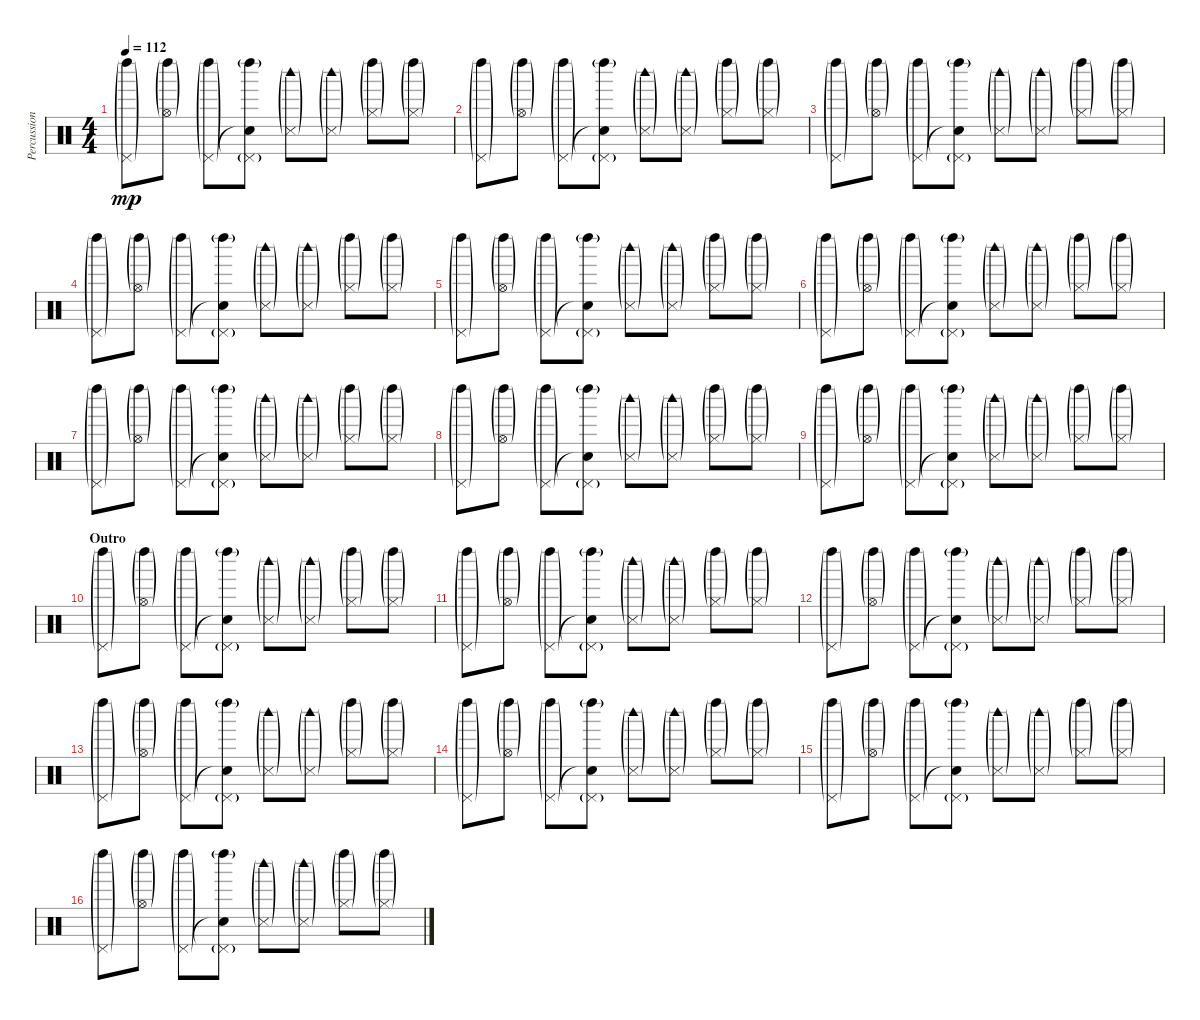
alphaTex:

\track ("Percussion" "Percussion") {instrument percussion}
\staff {score}
\articulation defaults
\ts (4 4)
\tempo 112
\clef neutral
\ks c
("Left Maraca (hit)"{g} "Pedal Hi-Hat (hit)"{g}).8{dy mp} ("Left Maraca (hit)"{g} "Hi-Hat (open)"{g}).8 ("Left Maraca (hit)"{g} "Pedal Hi-Hat (hit)"{g}).8 ("Left Maraca (hit)"{g} "Snare (hit)"{t} "Pedal Hi-Hat (hit)"{g}).8 ("Snare (side stick) 3"{g} "Woodblock high (hit)"{g}).8 ("Snare (side stick) 3"{g} "Woodblock high (hit)"{g}).8 ("Left Maraca (hit)"{g} "Hi-Hat (closed)"{g}).8 ("Left Maraca (hit)"{g} "Hi-Hat (closed)"{g}).8 |
("Left Maraca (hit)"{g} "Pedal Hi-Hat (hit)"{g}).8 ("Left Maraca (hit)"{g} "Hi-Hat (open)"{g}).8 ("Left Maraca (hit)"{g} "Pedal Hi-Hat (hit)"{g}).8 ("Left Maraca (hit)"{g} "Snare (hit)"{t} "Pedal Hi-Hat (hit)"{g}).8 ("Snare (side stick) 3"{g} "Woodblock high (hit)"{g}).8 ("Snare (side stick) 3"{g} "Woodblock high (hit)"{g}).8 ("Left Maraca (hit)"{g} "Hi-Hat (closed)"{g}).8 ("Left Maraca (hit)"{g} "Hi-Hat (closed)"{g}).8 |
("Left Maraca (hit)"{g} "Pedal Hi-Hat (hit)"{g}).8 ("Left Maraca (hit)"{g} "Hi-Hat (open)"{g}).8 ("Left Maraca (hit)"{g} "Pedal Hi-Hat (hit)"{g}).8 ("Left Maraca (hit)"{g} "Snare (hit)"{t} "Pedal Hi-Hat (hit)"{g}).8 ("Snare (side stick) 3"{g} "Woodblock high (hit)"{g}).8 ("Snare (side stick) 3"{g} "Woodblock high (hit)"{g}).8 ("Left Maraca (hit)"{g} "Hi-Hat (closed)"{g}).8 ("Left Maraca (hit)"{g} "Hi-Hat (closed)"{g}).8 |
("Left Maraca (hit)"{g} "Pedal Hi-Hat (hit)"{g}).8 ("Left Maraca (hit)"{g} "Hi-Hat (open)"{g}).8 ("Left Maraca (hit)"{g} "Pedal Hi-Hat (hit)"{g}).8 ("Left Maraca (hit)"{g} "Snare (hit)"{t} "Pedal Hi-Hat (hit)"{g}).8 ("Snare (side stick) 3"{g} "Woodblock high (hit)"{g}).8 ("Snare (side stick) 3"{g} "Woodblock high (hit)"{g}).8 ("Left Maraca (hit)"{g} "Hi-Hat (closed)"{g}).8 ("Left Maraca (hit)"{g} "Hi-Hat (closed)"{g}).8 |
("Left Maraca (hit)"{g} "Pedal Hi-Hat (hit)"{g}).8 ("Left Maraca (hit)"{g} "Hi-Hat (open)"{g}).8 ("Left Maraca (hit)"{g} "Pedal Hi-Hat (hit)"{g}).8 ("Left Maraca (hit)"{g} "Snare (hit)"{t} "Pedal Hi-Hat (hit)"{g}).8 ("Snare (side stick) 3"{g} "Woodblock high (hit)"{g}).8 ("Snare (side stick) 3"{g} "Woodblock high (hit)"{g}).8 ("Left Maraca (hit)"{g} "Hi-Hat (closed)"{g}).8 ("Left Maraca (hit)"{g} "Hi-Hat (closed)"{g}).8 |
("Left Maraca (hit)"{g} "Pedal Hi-Hat (hit)"{g}).8 ("Left Maraca (hit)"{g} "Hi-Hat (open)"{g}).8 ("Left Maraca (hit)"{g} "Pedal Hi-Hat (hit)"{g}).8 ("Left Maraca (hit)"{g} "Snare (hit)"{t} "Pedal Hi-Hat (hit)"{g}).8 ("Snare (side stick) 3"{g} "Woodblock high (hit)"{g}).8 ("Snare (side stick) 3"{g} "Woodblock high (hit)"{g}).8 ("Left Maraca (hit)"{g} "Hi-Hat (closed)"{g}).8 ("Left Maraca (hit)"{g} "Hi-Hat (closed)"{g}).8 |
("Left Maraca (hit)"{g} "Pedal Hi-Hat (hit)"{g}).8 ("Left Maraca (hit)"{g} "Hi-Hat (open)"{g}).8 ("Left Maraca (hit)"{g} "Pedal Hi-Hat (hit)"{g}).8 ("Left Maraca (hit)"{g} "Snare (hit)"{t} "Pedal Hi-Hat (hit)"{g}).8 ("Snare (side stick) 3"{g} "Woodblock high (hit)"{g}).8 ("Snare (side stick) 3"{g} "Woodblock high (hit)"{g}).8 ("Left Maraca (hit)"{g} "Hi-Hat (closed)"{g}).8 ("Left Maraca (hit)"{g} "Hi-Hat (closed)"{g}).8 |
("Left Maraca (hit)"{g} "Pedal Hi-Hat (hit)"{g}).8 ("Left Maraca (hit)"{g} "Hi-Hat (open)"{g}).8 ("Left Maraca (hit)"{g} "Pedal Hi-Hat (hit)"{g}).8 ("Left Maraca (hit)"{g} "Snare (hit)"{t} "Pedal Hi-Hat (hit)"{g}).8 ("Snare (side stick) 3"{g} "Woodblock high (hit)"{g}).8 ("Snare (side stick) 3"{g} "Woodblock high (hit)"{g}).8 ("Left Maraca (hit)"{g} "Hi-Hat (closed)"{g}).8 ("Left Maraca (hit)"{g} "Hi-Hat (closed)"{g}).8 |
("Left Maraca (hit)"{g} "Pedal Hi-Hat (hit)"{g}).8 ("Left Maraca (hit)"{g} "Hi-Hat (open)"{g}).8 ("Left Maraca (hit)"{g} "Pedal Hi-Hat (hit)"{g}).8 ("Left Maraca (hit)"{g} "Snare (hit)"{t} "Pedal Hi-Hat (hit)"{g}).8 ("Snare (side stick) 3"{g} "Woodblock high (hit)"{g}).8 ("Snare (side stick) 3"{g} "Woodblock high (hit)"{g}).8 ("Left Maraca (hit)"{g} "Hi-Hat (closed)"{g}).8 ("Left Maraca (hit)"{g} "Hi-Hat (closed)"{g}).8 |
\section ("" "Outro")
("Left Maraca (hit)"{g} "Pedal Hi-Hat (hit)"{g}).8 ("Left Maraca (hit)"{g} "Hi-Hat (open)"{g}).8 ("Left Maraca (hit)"{g} "Pedal Hi-Hat (hit)"{g}).8 ("Left Maraca (hit)"{g} "Snare (hit)"{t} "Pedal Hi-Hat (hit)"{g}).8 ("Snare (side stick) 3"{g} "Woodblock high (hit)"{g}).8 ("Snare (side stick) 3"{g} "Woodblock high (hit)"{g}).8 ("Left Maraca (hit)"{g} "Hi-Hat (closed)"{g}).8 ("Left Maraca (hit)"{g} "Hi-Hat (closed)"{g}).8 |
("Left Maraca (hit)"{g} "Pedal Hi-Hat (hit)"{g}).8 ("Left Maraca (hit)"{g} "Hi-Hat (open)"{g}).8 ("Left Maraca (hit)"{g} "Pedal Hi-Hat (hit)"{g}).8 ("Left Maraca (hit)"{g} "Snare (hit)"{t} "Pedal Hi-Hat (hit)"{g}).8 ("Snare (side stick) 3"{g} "Woodblock high (hit)"{g}).8 ("Snare (side stick) 3"{g} "Woodblock high (hit)"{g}).8 ("Left Maraca (hit)"{g} "Hi-Hat (closed)"{g}).8 ("Left Maraca (hit)"{g} "Hi-Hat (closed)"{g}).8 |
("Left Maraca (hit)"{g} "Pedal Hi-Hat (hit)"{g}).8 ("Left Maraca (hit)"{g} "Hi-Hat (open)"{g}).8 ("Left Maraca (hit)"{g} "Pedal Hi-Hat (hit)"{g}).8 ("Left Maraca (hit)"{g} "Snare (hit)"{t} "Pedal Hi-Hat (hit)"{g}).8 ("Snare (side stick) 3"{g} "Woodblock high (hit)"{g}).8 ("Snare (side stick) 3"{g} "Woodblock high (hit)"{g}).8 ("Left Maraca (hit)"{g} "Hi-Hat (closed)"{g}).8 ("Left Maraca (hit)"{g} "Hi-Hat (closed)"{g}).8 |
("Left Maraca (hit)"{g} "Pedal Hi-Hat (hit)"{g}).8 ("Left Maraca (hit)"{g} "Hi-Hat (open)"{g}).8 ("Left Maraca (hit)"{g} "Pedal Hi-Hat (hit)"{g}).8 ("Left Maraca (hit)"{g} "Snare (hit)"{t} "Pedal Hi-Hat (hit)"{g}).8 ("Snare (side stick) 3"{g} "Woodblock high (hit)"{g}).8 ("Snare (side stick) 3"{g} "Woodblock high (hit)"{g}).8 ("Left Maraca (hit)"{g} "Hi-Hat (closed)"{g}).8 ("Left Maraca (hit)"{g} "Hi-Hat (closed)"{g}).8 |
("Left Maraca (hit)"{g} "Pedal Hi-Hat (hit)"{g}).8 ("Left Maraca (hit)"{g} "Hi-Hat (open)"{g}).8 ("Left Maraca (hit)"{g} "Pedal Hi-Hat (hit)"{g}).8 ("Left Maraca (hit)"{g} "Snare (hit)"{t} "Pedal Hi-Hat (hit)"{g}).8 ("Snare (side stick) 3"{g} "Woodblock high (hit)"{g}).8 ("Snare (side stick) 3"{g} "Woodblock high (hit)"{g}).8 ("Left Maraca (hit)"{g} "Hi-Hat (closed)"{g}).8 ("Left Maraca (hit)"{g} "Hi-Hat (closed)"{g}).8 |
("Left Maraca (hit)"{g} "Pedal Hi-Hat (hit)"{g}).8 ("Left Maraca (hit)"{g} "Hi-Hat (open)"{g}).8 ("Left Maraca (hit)"{g} "Pedal Hi-Hat (hit)"{g}).8 ("Left Maraca (hit)"{g} "Snare (hit)"{t} "Pedal Hi-Hat (hit)"{g}).8 ("Snare (side stick) 3"{g} "Woodblock high (hit)"{g}).8 ("Snare (side stick) 3"{g} "Woodblock high (hit)"{g}).8 ("Left Maraca (hit)"{g} "Hi-Hat (closed)"{g}).8 ("Left Maraca (hit)"{g} "Hi-Hat (closed)"{g}).8 |
("Left Maraca (hit)"{g} "Pedal Hi-Hat (hit)"{g}).8 ("Left Maraca (hit)"{g} "Hi-Hat (open)"{g}).8 ("Left Maraca (hit)"{g} "Pedal Hi-Hat (hit)"{g}).8 ("Left Maraca (hit)"{g} "Snare (hit)"{t} "Pedal Hi-Hat (hit)"{g}).8 ("Snare (side stick) 3"{g} "Woodblock high (hit)"{g}).8 ("Snare (side stick) 3"{g} "Woodblock high (hit)"{g}).8 ("Left Maraca (hit)"{g} "Hi-Hat (closed)"{g}).8 ("Left Maraca (hit)"{g} "Hi-Hat (closed)"{g}).8
